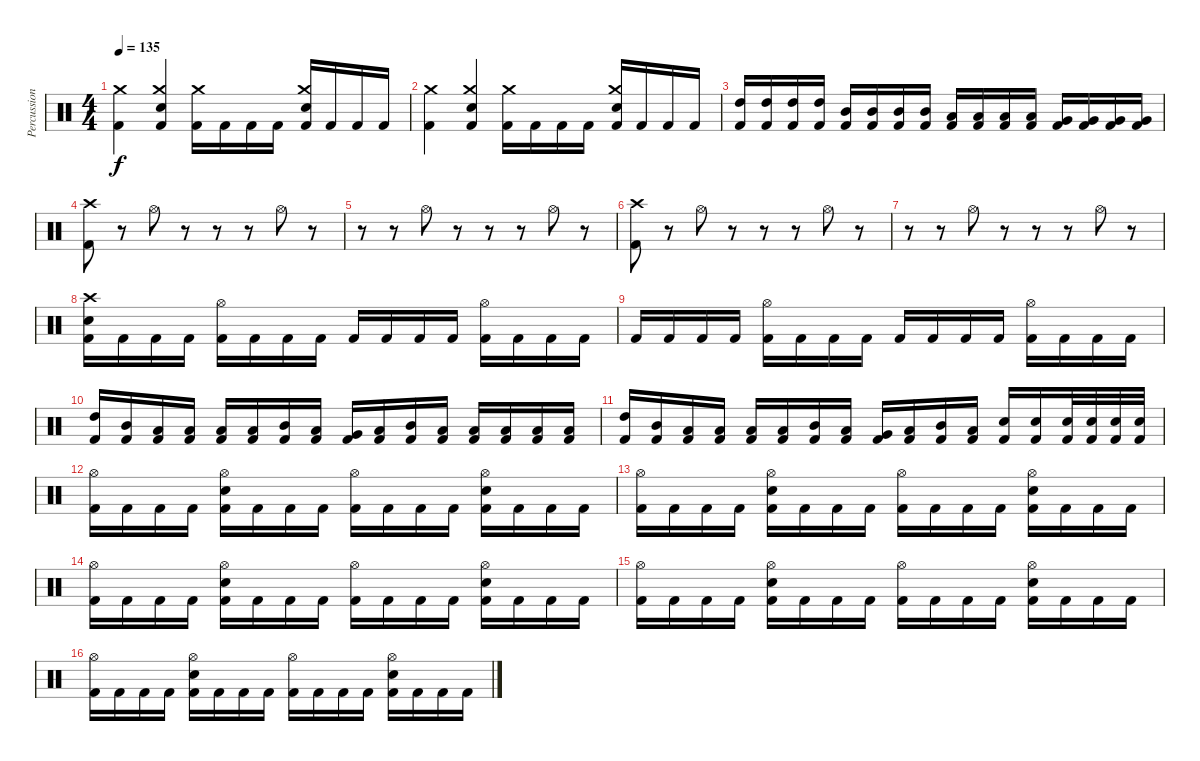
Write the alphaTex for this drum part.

\track ("Percussion" "Percussion") {instrument percussion}
\staff {score}
\articulation defaults
\ts (4 4)
\tempo 135
\clef neutral
\ks c
("Kick (hit) 2" "Crash medium (hit)").4{dy f} ("Kick (hit) 2" "Electric Snare (hit)" "Crash medium (hit)").4 ("Kick (hit) 2" "Crash medium (hit)").16 "Kick (hit) 2".16 "Kick (hit) 2".16 "Kick (hit) 2".16 ("Kick (hit) 2" "Crash medium (hit)" "Electric Snare (hit)").16 "Kick (hit) 2".16 "Kick (hit) 2".16 "Kick (hit) 2".16 |
("Kick (hit) 2" "Crash medium (hit)").4 ("Kick (hit) 2" "Electric Snare (hit)" "Crash medium (hit)").4 ("Kick (hit) 2" "Crash medium (hit)").16 "Kick (hit) 2".16 "Kick (hit) 2".16 "Kick (hit) 2".16 ("Kick (hit) 2" "Crash medium (hit)" "Electric Snare (hit)").16 "Kick (hit) 2".16 "Kick (hit) 2".16 "Kick (hit) 2".16 |
("Kick (hit) 2" "High Tom (hit)").16 ("Kick (hit) 2" "High Tom (hit)").16 ("Kick (hit) 2" "High Tom (hit)").16 ("Kick (hit) 2" "High Tom (hit)").16 ("Kick (hit) 2" "Mid Tom (hit)").16 ("Kick (hit) 2" "Mid Tom (hit)").16 ("Kick (hit) 2" "Mid Tom (hit)").16 ("Kick (hit) 2" "Mid Tom (hit)").16 ("Kick (hit) 2" "Low Tom (hit)").16 ("Kick (hit) 2" "Low Tom (hit)").16 ("Kick (hit) 2" "Low Tom (hit)").16 ("Kick (hit) 2" "Low Tom (hit)").16 ("Kick (hit) 2" "Very Low Tom (hit)").16 ("Kick (hit) 2" "Very Low Tom (hit)").16 ("Kick (hit) 2" "Very Low Tom (hit)").16 ("Kick (hit) 2" "Very Low Tom (hit)").16 |
("Crash high (hit)" "Kick (hit) 2").8 r.8 "Hi-Hat (open)".8 r.8 r.8 r.8 "Hi-Hat (open)".8 r.8 |
r.8 r.8 "Hi-Hat (open)".8 r.8 r.8 r.8 "Hi-Hat (open)".8 r.8 |
("Crash high (hit)" "Kick (hit) 2").8 r.8 "Hi-Hat (open)".8 r.8 r.8 r.8 "Hi-Hat (open)".8 r.8 |
r.8 r.8 "Hi-Hat (open)".8 r.8 r.8 r.8 "Hi-Hat (open)".8 r.8 |
("Electric Snare (hit)" "Crash high (hit)" "Kick (hit) 2").16 "Kick (hit) 2".16 "Kick (hit) 2".16 "Kick (hit) 2".16 ("Kick (hit) 2" "Hi-Hat (open)").16 "Kick (hit) 2".16 "Kick (hit) 2".16 "Kick (hit) 2".16 "Kick (hit) 2".16 "Kick (hit) 2".16 "Kick (hit) 2".16 "Kick (hit) 2".16 ("Kick (hit) 2" "Hi-Hat (open)").16 "Kick (hit) 2".16 "Kick (hit) 2".16 "Kick (hit) 2".16 |
"Kick (hit) 2".16 "Kick (hit) 2".16 "Kick (hit) 2".16 "Kick (hit) 2".16 ("Kick (hit) 2" "Hi-Hat (open)").16 "Kick (hit) 2".16 "Kick (hit) 2".16 "Kick (hit) 2".16 "Kick (hit) 2".16 "Kick (hit) 2".16 "Kick (hit) 2".16 "Kick (hit) 2".16 ("Kick (hit) 2" "Hi-Hat (open)").16 "Kick (hit) 2".16 "Kick (hit) 2".16 "Kick (hit) 2".16 |
("Kick (hit) 2" "High Tom (hit)").16 ("Kick (hit) 2" "Mid Tom (hit)").16 ("Kick (hit) 2" "Low Tom (hit)").16 ("Kick (hit) 2" "Low Tom (hit)").16 ("Kick (hit) 2" "Low Tom (hit)").16 ("Kick (hit) 2" "Low Tom (hit)").16 ("Kick (hit) 2" "Mid Tom (hit)").16 ("Kick (hit) 2" "Low Tom (hit)").16 ("Kick (hit) 2" "Very Low Tom (hit)").16 ("Kick (hit) 2" "Low Tom (hit)").16 ("Kick (hit) 2" "Mid Tom (hit)").16 ("Kick (hit) 2" "Low Tom (hit)").16 ("Kick (hit) 2" "Low Tom (hit)").16 ("Kick (hit) 2" "Low Tom (hit)").16 ("Kick (hit) 2" "Low Tom (hit)").16 ("Kick (hit) 2" "Low Tom (hit)").16 |
("Kick (hit) 2" "High Tom (hit)").16 ("Kick (hit) 2" "Mid Tom (hit)").16 ("Kick (hit) 2" "Low Tom (hit)").16 ("Kick (hit) 2" "Low Tom (hit)").16 ("Kick (hit) 2" "Low Tom (hit)").16 ("Kick (hit) 2" "Low Tom (hit)").16 ("Kick (hit) 2" "Mid Tom (hit)").16 ("Kick (hit) 2" "Low Tom (hit)").16 ("Kick (hit) 2" "Very Low Tom (hit)").16 ("Kick (hit) 2" "Low Tom (hit)").16 ("Kick (hit) 2" "Mid Tom (hit)").16 ("Kick (hit) 2" "Low Tom (hit)").16 ("Kick (hit) 2" "Electric Snare (hit)").16 ("Kick (hit) 2" "Electric Snare (hit)").16 ("Kick (hit) 2" "Electric Snare (hit)").32 ("Kick (hit) 2" "Electric Snare (hit)").32 ("Kick (hit) 2" "Electric Snare (hit)").32 ("Kick (hit) 2" "Electric Snare (hit)").32 |
("Kick (hit) 2" "Hi-Hat (open)").16 "Kick (hit) 2".16 "Kick (hit) 2".16 "Kick (hit) 2".16 ("Kick (hit) 2" "Hi-Hat (open)" "Electric Snare (hit)").16 "Kick (hit) 2".16 "Kick (hit) 2".16 "Kick (hit) 2".16 ("Kick (hit) 2" "Hi-Hat (open)").16 "Kick (hit) 2".16 "Kick (hit) 2".16 "Kick (hit) 2".16 ("Kick (hit) 2" "Hi-Hat (open)" "Electric Snare (hit)").16 "Kick (hit) 2".16 "Kick (hit) 2".16 "Kick (hit) 2".16 |
("Kick (hit) 2" "Hi-Hat (open)").16 "Kick (hit) 2".16 "Kick (hit) 2".16 "Kick (hit) 2".16 ("Kick (hit) 2" "Hi-Hat (open)" "Electric Snare (hit)").16 "Kick (hit) 2".16 "Kick (hit) 2".16 "Kick (hit) 2".16 ("Kick (hit) 2" "Hi-Hat (open)").16 "Kick (hit) 2".16 "Kick (hit) 2".16 "Kick (hit) 2".16 ("Kick (hit) 2" "Hi-Hat (open)" "Electric Snare (hit)").16 "Kick (hit) 2".16 "Kick (hit) 2".16 "Kick (hit) 2".16 |
("Kick (hit) 2" "Hi-Hat (open)").16 "Kick (hit) 2".16 "Kick (hit) 2".16 "Kick (hit) 2".16 ("Kick (hit) 2" "Hi-Hat (open)" "Electric Snare (hit)").16 "Kick (hit) 2".16 "Kick (hit) 2".16 "Kick (hit) 2".16 ("Kick (hit) 2" "Hi-Hat (open)").16 "Kick (hit) 2".16 "Kick (hit) 2".16 "Kick (hit) 2".16 ("Kick (hit) 2" "Hi-Hat (open)" "Electric Snare (hit)").16 "Kick (hit) 2".16 "Kick (hit) 2".16 "Kick (hit) 2".16 |
("Kick (hit) 2" "Hi-Hat (open)").16 "Kick (hit) 2".16 "Kick (hit) 2".16 "Kick (hit) 2".16 ("Kick (hit) 2" "Hi-Hat (open)" "Electric Snare (hit)").16 "Kick (hit) 2".16 "Kick (hit) 2".16 "Kick (hit) 2".16 ("Kick (hit) 2" "Hi-Hat (open)").16 "Kick (hit) 2".16 "Kick (hit) 2".16 "Kick (hit) 2".16 ("Kick (hit) 2" "Hi-Hat (open)" "Electric Snare (hit)").16 "Kick (hit) 2".16 "Kick (hit) 2".16 "Kick (hit) 2".16 |
("Kick (hit) 2" "Hi-Hat (open)").16 "Kick (hit) 2".16 "Kick (hit) 2".16 "Kick (hit) 2".16 ("Kick (hit) 2" "Hi-Hat (open)" "Electric Snare (hit)").16 "Kick (hit) 2".16 "Kick (hit) 2".16 "Kick (hit) 2".16 ("Kick (hit) 2" "Hi-Hat (open)").16 "Kick (hit) 2".16 "Kick (hit) 2".16 "Kick (hit) 2".16 ("Kick (hit) 2" "Hi-Hat (open)" "Electric Snare (hit)").16 "Kick (hit) 2".16 "Kick (hit) 2".16 "Kick (hit) 2".16
